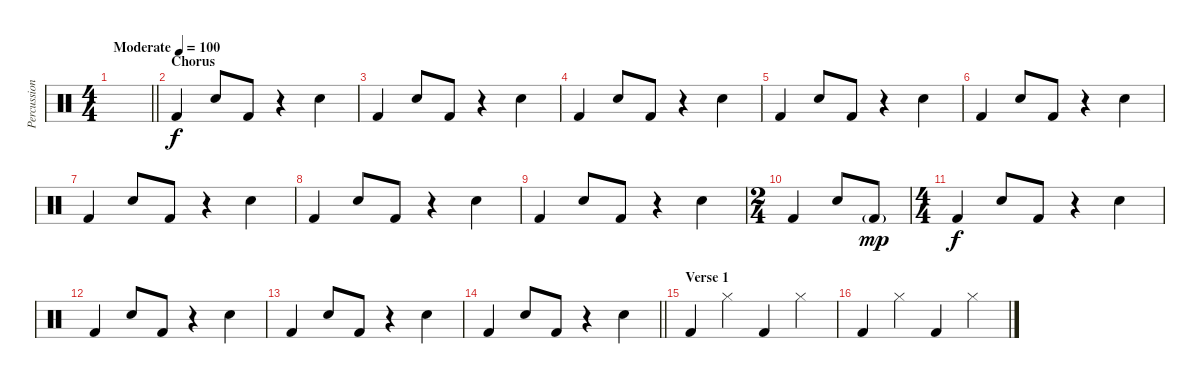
\track ("Percussion" "Percussion") {instrument percussion}
\staff {score}
\articulation defaults
\ts (4 4)
\tempo (100 "Moderate")
\clef neutral
\barLineRight lightlight
\ks c
|
\section ("" "Chorus")
"Kick (hit) 2".4 "Snare (hit) 2".8 "Kick (hit) 2".8 r.4 "Snare (hit) 2".4 |
"Kick (hit) 2".4 "Snare (hit) 2".8 "Kick (hit) 2".8 r.4 "Snare (hit) 2".4 |
"Kick (hit) 2".4 "Snare (hit) 2".8 "Kick (hit) 2".8 r.4 "Snare (hit) 2".4 |
"Kick (hit) 2".4 "Snare (hit) 2".8 "Kick (hit) 2".8 r.4 "Snare (hit) 2".4 |
"Kick (hit) 2".4 "Snare (hit) 2".8 "Kick (hit) 2".8 r.4 "Snare (hit) 2".4 |
"Kick (hit) 2".4 "Snare (hit) 2".8 "Kick (hit) 2".8 r.4 "Snare (hit) 2".4 |
"Kick (hit) 2".4 "Snare (hit) 2".8 "Kick (hit) 2".8 r.4 "Snare (hit) 2".4 |
"Kick (hit) 2".4 "Snare (hit) 2".8 "Kick (hit) 2".8 r.4 "Snare (hit) 2".4 |
\ts (2 4)
"Kick (hit) 2".4 "Snare (hit) 2".8 "Kick (hit) 2"{g}.8{dy mp} |
\ts (4 4)
"Kick (hit) 2".4{dy f} "Snare (hit) 2".8 "Kick (hit) 2".8 r.4 "Snare (hit) 2".4 |
"Kick (hit) 2".4 "Snare (hit) 2".8 "Kick (hit) 2".8 r.4 "Snare (hit) 2".4 |
"Kick (hit) 2".4 "Snare (hit) 2".8 "Kick (hit) 2".8 r.4 "Snare (hit) 2".4 |
\barLineRight lightlight "Kick (hit) 2".4 "Snare (hit) 2".8 "Kick (hit) 2".8
r.4 "Snare (hit) 2".4 |
\section ("" "Verse 1")
"Kick (hit) 2".4 "Hi-Hat (closed)".4 "Kick (hit) 2".4 "Hi-Hat (closed)".4 |
"Kick (hit) 2".4 "Hi-Hat (closed)".4 "Kick (hit) 2".4 "Hi-Hat (closed)".4
